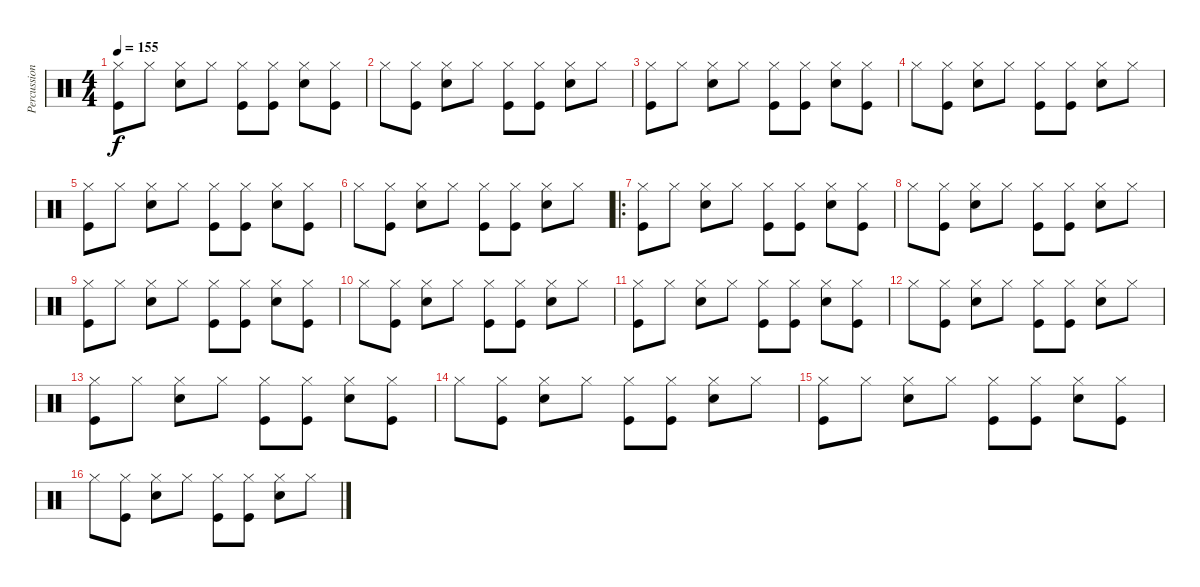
\track ("Percussion" "Percussion") {instrument percussion}
\staff {score}
\articulation defaults
\ts (4 4)
\tempo 155
\clef neutral
\ks c
("Hi-Hat (closed)" "Kick (hit)").8{dy f} "Hi-Hat (closed)".8 ("Hi-Hat (closed)" "Electric Snare (hit)").8 "Hi-Hat (closed)".8 ("Hi-Hat (closed)" "Kick (hit)").8 ("Hi-Hat (closed)" "Kick (hit)").8 ("Hi-Hat (closed)" "Electric Snare (hit)").8 ("Hi-Hat (closed)" "Kick (hit)").8 |
"Hi-Hat (closed)".8 ("Hi-Hat (closed)" "Kick (hit)").8 ("Hi-Hat (closed)" "Electric Snare (hit)").8 "Hi-Hat (closed)".8 ("Hi-Hat (closed)" "Kick (hit)").8 ("Hi-Hat (closed)" "Kick (hit)").8 ("Hi-Hat (closed)" "Electric Snare (hit)").8 "Hi-Hat (closed)".8 |
("Hi-Hat (closed)" "Kick (hit)").8 "Hi-Hat (closed)".8 ("Hi-Hat (closed)" "Electric Snare (hit)").8 "Hi-Hat (closed)".8 ("Hi-Hat (closed)" "Kick (hit)").8 ("Hi-Hat (closed)" "Kick (hit)").8 ("Hi-Hat (closed)" "Electric Snare (hit)").8 ("Hi-Hat (closed)" "Kick (hit)").8 |
"Hi-Hat (closed)".8 ("Hi-Hat (closed)" "Kick (hit)").8 ("Hi-Hat (closed)" "Electric Snare (hit)").8 "Hi-Hat (closed)".8 ("Hi-Hat (closed)" "Kick (hit)").8 ("Hi-Hat (closed)" "Kick (hit)").8 ("Hi-Hat (closed)" "Electric Snare (hit)").8 "Hi-Hat (closed)".8 |
("Hi-Hat (closed)" "Kick (hit)").8 "Hi-Hat (closed)".8 ("Hi-Hat (closed)" "Electric Snare (hit)").8 "Hi-Hat (closed)".8 ("Hi-Hat (closed)" "Kick (hit)").8 ("Hi-Hat (closed)" "Kick (hit)").8 ("Hi-Hat (closed)" "Electric Snare (hit)").8 ("Hi-Hat (closed)" "Kick (hit)").8 |
"Hi-Hat (closed)".8 ("Hi-Hat (closed)" "Kick (hit)").8 ("Hi-Hat (closed)" "Electric Snare (hit)").8 "Hi-Hat (closed)".8 ("Hi-Hat (closed)" "Kick (hit)").8 ("Hi-Hat (closed)" "Kick (hit)").8 ("Hi-Hat (closed)" "Electric Snare (hit)").8 "Hi-Hat (closed)".8 |
\ro
("Hi-Hat (closed)" "Kick (hit)").8 "Hi-Hat (closed)".8 ("Hi-Hat (closed)" "Electric Snare (hit)").8 "Hi-Hat (closed)".8 ("Hi-Hat (closed)" "Kick (hit)").8 ("Hi-Hat (closed)" "Kick (hit)").8 ("Hi-Hat (closed)" "Electric Snare (hit)").8 ("Hi-Hat (closed)" "Kick (hit)").8 |
"Hi-Hat (closed)".8 ("Hi-Hat (closed)" "Kick (hit)").8 ("Hi-Hat (closed)" "Electric Snare (hit)").8 "Hi-Hat (closed)".8 ("Hi-Hat (closed)" "Kick (hit)").8 ("Hi-Hat (closed)" "Kick (hit)").8 ("Hi-Hat (closed)" "Electric Snare (hit)").8 "Hi-Hat (closed)".8 |
("Hi-Hat (closed)" "Kick (hit)").8 "Hi-Hat (closed)".8 ("Hi-Hat (closed)" "Electric Snare (hit)").8 "Hi-Hat (closed)".8 ("Hi-Hat (closed)" "Kick (hit)").8 ("Hi-Hat (closed)" "Kick (hit)").8 ("Hi-Hat (closed)" "Electric Snare (hit)").8 ("Hi-Hat (closed)" "Kick (hit)").8 |
"Hi-Hat (closed)".8 ("Hi-Hat (closed)" "Kick (hit)").8 ("Hi-Hat (closed)" "Electric Snare (hit)").8 "Hi-Hat (closed)".8 ("Hi-Hat (closed)" "Kick (hit)").8 ("Hi-Hat (closed)" "Kick (hit)").8 ("Hi-Hat (closed)" "Electric Snare (hit)").8 "Hi-Hat (closed)".8 |
("Hi-Hat (closed)" "Kick (hit)").8 "Hi-Hat (closed)".8 ("Hi-Hat (closed)" "Electric Snare (hit)").8 "Hi-Hat (closed)".8 ("Hi-Hat (closed)" "Kick (hit)").8 ("Hi-Hat (closed)" "Kick (hit)").8 ("Hi-Hat (closed)" "Electric Snare (hit)").8 ("Hi-Hat (closed)" "Kick (hit)").8 |
"Hi-Hat (closed)".8 ("Hi-Hat (closed)" "Kick (hit)").8 ("Hi-Hat (closed)" "Electric Snare (hit)").8 "Hi-Hat (closed)".8 ("Hi-Hat (closed)" "Kick (hit)").8 ("Hi-Hat (closed)" "Kick (hit)").8 ("Hi-Hat (closed)" "Electric Snare (hit)").8 "Hi-Hat (closed)".8 |
("Hi-Hat (closed)" "Kick (hit)").8 "Hi-Hat (closed)".8 ("Hi-Hat (closed)" "Electric Snare (hit)").8 "Hi-Hat (closed)".8 ("Hi-Hat (closed)" "Kick (hit)").8 ("Hi-Hat (closed)" "Kick (hit)").8 ("Hi-Hat (closed)" "Electric Snare (hit)").8 ("Hi-Hat (closed)" "Kick (hit)").8 |
"Hi-Hat (closed)".8 ("Hi-Hat (closed)" "Kick (hit)").8 ("Hi-Hat (closed)" "Electric Snare (hit)").8 "Hi-Hat (closed)".8 ("Hi-Hat (closed)" "Kick (hit)").8 ("Hi-Hat (closed)" "Kick (hit)").8 ("Hi-Hat (closed)" "Electric Snare (hit)").8 "Hi-Hat (closed)".8 |
("Hi-Hat (closed)" "Kick (hit)").8 "Hi-Hat (closed)".8 ("Hi-Hat (closed)" "Electric Snare (hit)").8 "Hi-Hat (closed)".8 ("Hi-Hat (closed)" "Kick (hit)").8 ("Hi-Hat (closed)" "Kick (hit)").8 ("Hi-Hat (closed)" "Electric Snare (hit)").8 ("Hi-Hat (closed)" "Kick (hit)").8 |
"Hi-Hat (closed)".8 ("Hi-Hat (closed)" "Kick (hit)").8 ("Hi-Hat (closed)" "Electric Snare (hit)").8 "Hi-Hat (closed)".8 ("Hi-Hat (closed)" "Kick (hit)").8 ("Hi-Hat (closed)" "Kick (hit)").8 ("Hi-Hat (closed)" "Electric Snare (hit)").8 "Hi-Hat (closed)".8
